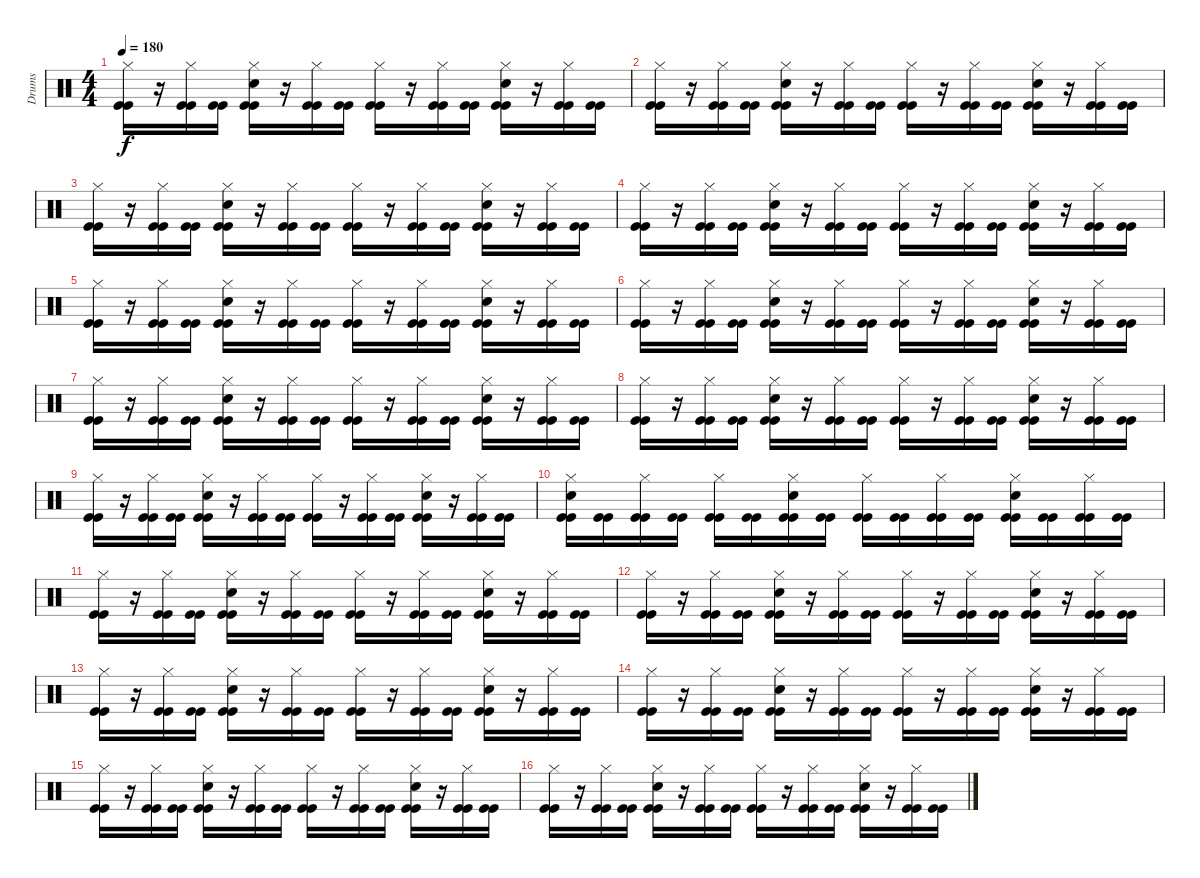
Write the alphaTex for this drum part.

\track ("Drums" "Drums") {instrument percussion}
\staff {score}
\articulation defaults
\ts (4 4)
\tempo 180
\clef neutral
\ks c
("Hi-Hat (closed)" "Kick (hit)" "Kick (hit)").16{dy f} r.16 ("Hi-Hat (closed)" "Kick (hit)" "Kick (hit)").16 ("Kick (hit)" "Kick (hit)").16 ("Snare (hit) 2" "Hi-Hat (closed)" "Kick (hit)" "Kick (hit)").16 r.16 ("Hi-Hat (closed)" "Kick (hit)" "Kick (hit)").16 ("Kick (hit)" "Kick (hit)").16 ("Hi-Hat (closed)" "Kick (hit)" "Kick (hit)").16 r.16 ("Hi-Hat (closed)" "Kick (hit)" "Kick (hit)").16 ("Kick (hit)" "Kick (hit)").16 ("Snare (hit) 2" "Hi-Hat (closed)" "Kick (hit)" "Kick (hit)").16 r.16 ("Hi-Hat (closed)" "Kick (hit)" "Kick (hit)").16 ("Kick (hit)" "Kick (hit)").16 |
("Hi-Hat (closed)" "Kick (hit)" "Kick (hit)").16 r.16 ("Hi-Hat (closed)" "Kick (hit)" "Kick (hit)").16 ("Kick (hit)" "Kick (hit)").16 ("Snare (hit) 2" "Hi-Hat (closed)" "Kick (hit)" "Kick (hit)").16 r.16 ("Hi-Hat (closed)" "Kick (hit)" "Kick (hit)").16 ("Kick (hit)" "Kick (hit)").16 ("Hi-Hat (closed)" "Kick (hit)" "Kick (hit)").16 r.16 ("Hi-Hat (closed)" "Kick (hit)" "Kick (hit)").16 ("Kick (hit)" "Kick (hit)").16 ("Snare (hit) 2" "Hi-Hat (closed)" "Kick (hit)" "Kick (hit)").16 r.16 ("Hi-Hat (closed)" "Kick (hit)" "Kick (hit)").16 ("Kick (hit)" "Kick (hit)").16 |
("Hi-Hat (closed)" "Kick (hit)" "Kick (hit)").16 r.16 ("Hi-Hat (closed)" "Kick (hit)" "Kick (hit)").16 ("Kick (hit)" "Kick (hit)").16 ("Snare (hit) 2" "Hi-Hat (closed)" "Kick (hit)" "Kick (hit)").16 r.16 ("Hi-Hat (closed)" "Kick (hit)" "Kick (hit)").16 ("Kick (hit)" "Kick (hit)").16 ("Hi-Hat (closed)" "Kick (hit)" "Kick (hit)").16 r.16 ("Hi-Hat (closed)" "Kick (hit)" "Kick (hit)").16 ("Kick (hit)" "Kick (hit)").16 ("Snare (hit) 2" "Hi-Hat (closed)" "Kick (hit)" "Kick (hit)").16 r.16 ("Hi-Hat (closed)" "Kick (hit)" "Kick (hit)").16 ("Kick (hit)" "Kick (hit)").16 |
("Hi-Hat (closed)" "Kick (hit)" "Kick (hit)").16 r.16 ("Hi-Hat (closed)" "Kick (hit)" "Kick (hit)").16 ("Kick (hit)" "Kick (hit)").16 ("Snare (hit) 2" "Hi-Hat (closed)" "Kick (hit)" "Kick (hit)").16 r.16 ("Hi-Hat (closed)" "Kick (hit)" "Kick (hit)").16 ("Kick (hit)" "Kick (hit)").16 ("Hi-Hat (closed)" "Kick (hit)" "Kick (hit)").16 r.16 ("Hi-Hat (closed)" "Kick (hit)" "Kick (hit)").16 ("Kick (hit)" "Kick (hit)").16 ("Snare (hit) 2" "Hi-Hat (closed)" "Kick (hit)" "Kick (hit)").16 r.16 ("Hi-Hat (closed)" "Kick (hit)" "Kick (hit)").16 ("Kick (hit)" "Kick (hit)").16 |
("Hi-Hat (closed)" "Kick (hit)" "Kick (hit)").16 r.16 ("Hi-Hat (closed)" "Kick (hit)" "Kick (hit)").16 ("Kick (hit)" "Kick (hit)").16 ("Snare (hit) 2" "Hi-Hat (closed)" "Kick (hit)" "Kick (hit)").16 r.16 ("Hi-Hat (closed)" "Kick (hit)" "Kick (hit)").16 ("Kick (hit)" "Kick (hit)").16 ("Hi-Hat (closed)" "Kick (hit)" "Kick (hit)").16 r.16 ("Hi-Hat (closed)" "Kick (hit)" "Kick (hit)").16 ("Kick (hit)" "Kick (hit)").16 ("Snare (hit) 2" "Hi-Hat (closed)" "Kick (hit)" "Kick (hit)").16 r.16 ("Hi-Hat (closed)" "Kick (hit)" "Kick (hit)").16 ("Kick (hit)" "Kick (hit)").16 |
("Hi-Hat (closed)" "Kick (hit)" "Kick (hit)").16 r.16 ("Hi-Hat (closed)" "Kick (hit)" "Kick (hit)").16 ("Kick (hit)" "Kick (hit)").16 ("Snare (hit) 2" "Hi-Hat (closed)" "Kick (hit)" "Kick (hit)").16 r.16 ("Hi-Hat (closed)" "Kick (hit)" "Kick (hit)").16 ("Kick (hit)" "Kick (hit)").16 ("Hi-Hat (closed)" "Kick (hit)" "Kick (hit)").16 r.16 ("Hi-Hat (closed)" "Kick (hit)" "Kick (hit)").16 ("Kick (hit)" "Kick (hit)").16 ("Snare (hit) 2" "Hi-Hat (closed)" "Kick (hit)" "Kick (hit)").16 r.16 ("Hi-Hat (closed)" "Kick (hit)" "Kick (hit)").16 ("Kick (hit)" "Kick (hit)").16 |
("Hi-Hat (closed)" "Kick (hit)" "Kick (hit)").16 r.16 ("Hi-Hat (closed)" "Kick (hit)" "Kick (hit)").16 ("Kick (hit)" "Kick (hit)").16 ("Snare (hit) 2" "Hi-Hat (closed)" "Kick (hit)" "Kick (hit)").16 r.16 ("Hi-Hat (closed)" "Kick (hit)" "Kick (hit)").16 ("Kick (hit)" "Kick (hit)").16 ("Hi-Hat (closed)" "Kick (hit)" "Kick (hit)").16 r.16 ("Hi-Hat (closed)" "Kick (hit)" "Kick (hit)").16 ("Kick (hit)" "Kick (hit)").16 ("Snare (hit) 2" "Hi-Hat (closed)" "Kick (hit)" "Kick (hit)").16 r.16 ("Hi-Hat (closed)" "Kick (hit)" "Kick (hit)").16 ("Kick (hit)" "Kick (hit)").16 |
("Hi-Hat (closed)" "Kick (hit)" "Kick (hit)").16 r.16 ("Hi-Hat (closed)" "Kick (hit)" "Kick (hit)").16 ("Kick (hit)" "Kick (hit)").16 ("Snare (hit) 2" "Hi-Hat (closed)" "Kick (hit)" "Kick (hit)").16 r.16 ("Hi-Hat (closed)" "Kick (hit)" "Kick (hit)").16 ("Kick (hit)" "Kick (hit)").16 ("Hi-Hat (closed)" "Kick (hit)" "Kick (hit)").16 r.16 ("Hi-Hat (closed)" "Kick (hit)" "Kick (hit)").16 ("Kick (hit)" "Kick (hit)").16 ("Snare (hit) 2" "Hi-Hat (closed)" "Kick (hit)" "Kick (hit)").16 r.16 ("Hi-Hat (closed)" "Kick (hit)" "Kick (hit)").16 ("Kick (hit)" "Kick (hit)").16 |
("Hi-Hat (closed)" "Kick (hit)" "Kick (hit)").16 r.16 ("Hi-Hat (closed)" "Kick (hit)" "Kick (hit)").16 ("Kick (hit)" "Kick (hit)").16 ("Snare (hit) 2" "Hi-Hat (closed)" "Kick (hit)" "Kick (hit)").16 r.16 ("Hi-Hat (closed)" "Kick (hit)" "Kick (hit)").16 ("Kick (hit)" "Kick (hit)").16 ("Hi-Hat (closed)" "Kick (hit)" "Kick (hit)").16 r.16 ("Hi-Hat (closed)" "Kick (hit)" "Kick (hit)").16 ("Kick (hit)" "Kick (hit)").16 ("Snare (hit) 2" "Hi-Hat (closed)" "Kick (hit)" "Kick (hit)").16 r.16 ("Hi-Hat (closed)" "Kick (hit)" "Kick (hit)").16 ("Kick (hit)" "Kick (hit)").16 |
("Snare (hit) 2" "Hi-Hat (closed)" "Kick (hit)" "Kick (hit)").16 ("Kick (hit)" "Kick (hit)").16 ("Hi-Hat (closed)" "Kick (hit)" "Kick (hit)").16 ("Kick (hit)" "Kick (hit)").16 ("Hi-Hat (closed)" "Kick (hit)" "Kick (hit)").16 ("Kick (hit)" "Kick (hit)").16 ("Snare (hit) 2" "Hi-Hat (closed)" "Kick (hit)" "Kick (hit)").16 ("Kick (hit)" "Kick (hit)").16 ("Hi-Hat (closed)" "Kick (hit)" "Kick (hit)").16 ("Kick (hit)" "Kick (hit)").16 ("Hi-Hat (closed)" "Kick (hit)" "Kick (hit)").16 ("Kick (hit)" "Kick (hit)").16 ("Snare (hit) 2" "Hi-Hat (closed)" "Kick (hit)" "Kick (hit)").16 ("Kick (hit)" "Kick (hit)").16 ("Hi-Hat (closed)" "Kick (hit)" "Kick (hit)").16 ("Kick (hit)" "Kick (hit)").16 |
("Hi-Hat (closed)" "Kick (hit)" "Kick (hit)").16 r.16 ("Hi-Hat (closed)" "Kick (hit)" "Kick (hit)").16 ("Kick (hit)" "Kick (hit)").16 ("Snare (hit) 2" "Hi-Hat (closed)" "Kick (hit)" "Kick (hit)").16 r.16 ("Hi-Hat (closed)" "Kick (hit)" "Kick (hit)").16 ("Kick (hit)" "Kick (hit)").16 ("Hi-Hat (closed)" "Kick (hit)" "Kick (hit)").16 r.16 ("Hi-Hat (closed)" "Kick (hit)" "Kick (hit)").16 ("Kick (hit)" "Kick (hit)").16 ("Snare (hit) 2" "Hi-Hat (closed)" "Kick (hit)" "Kick (hit)").16 r.16 ("Hi-Hat (closed)" "Kick (hit)" "Kick (hit)").16 ("Kick (hit)" "Kick (hit)").16 |
("Hi-Hat (closed)" "Kick (hit)" "Kick (hit)").16 r.16 ("Hi-Hat (closed)" "Kick (hit)" "Kick (hit)").16 ("Kick (hit)" "Kick (hit)").16 ("Snare (hit) 2" "Hi-Hat (closed)" "Kick (hit)" "Kick (hit)").16 r.16 ("Hi-Hat (closed)" "Kick (hit)" "Kick (hit)").16 ("Kick (hit)" "Kick (hit)").16 ("Hi-Hat (closed)" "Kick (hit)" "Kick (hit)").16 r.16 ("Hi-Hat (closed)" "Kick (hit)" "Kick (hit)").16 ("Kick (hit)" "Kick (hit)").16 ("Snare (hit) 2" "Hi-Hat (closed)" "Kick (hit)" "Kick (hit)").16 r.16 ("Hi-Hat (closed)" "Kick (hit)" "Kick (hit)").16 ("Kick (hit)" "Kick (hit)").16 |
("Hi-Hat (closed)" "Kick (hit)" "Kick (hit)").16 r.16 ("Hi-Hat (closed)" "Kick (hit)" "Kick (hit)").16 ("Kick (hit)" "Kick (hit)").16 ("Snare (hit) 2" "Hi-Hat (closed)" "Kick (hit)" "Kick (hit)").16 r.16 ("Hi-Hat (closed)" "Kick (hit)" "Kick (hit)").16 ("Kick (hit)" "Kick (hit)").16 ("Hi-Hat (closed)" "Kick (hit)" "Kick (hit)").16 r.16 ("Hi-Hat (closed)" "Kick (hit)" "Kick (hit)").16 ("Kick (hit)" "Kick (hit)").16 ("Snare (hit) 2" "Hi-Hat (closed)" "Kick (hit)" "Kick (hit)").16 r.16 ("Hi-Hat (closed)" "Kick (hit)" "Kick (hit)").16 ("Kick (hit)" "Kick (hit)").16 |
("Hi-Hat (closed)" "Kick (hit)" "Kick (hit)").16 r.16 ("Hi-Hat (closed)" "Kick (hit)" "Kick (hit)").16 ("Kick (hit)" "Kick (hit)").16 ("Snare (hit) 2" "Hi-Hat (closed)" "Kick (hit)" "Kick (hit)").16 r.16 ("Hi-Hat (closed)" "Kick (hit)" "Kick (hit)").16 ("Kick (hit)" "Kick (hit)").16 ("Hi-Hat (closed)" "Kick (hit)" "Kick (hit)").16 r.16 ("Hi-Hat (closed)" "Kick (hit)" "Kick (hit)").16 ("Kick (hit)" "Kick (hit)").16 ("Snare (hit) 2" "Hi-Hat (closed)" "Kick (hit)" "Kick (hit)").16 r.16 ("Hi-Hat (closed)" "Kick (hit)" "Kick (hit)").16 ("Kick (hit)" "Kick (hit)").16 |
("Hi-Hat (closed)" "Kick (hit)" "Kick (hit)").16 r.16 ("Hi-Hat (closed)" "Kick (hit)" "Kick (hit)").16 ("Kick (hit)" "Kick (hit)").16 ("Snare (hit) 2" "Hi-Hat (closed)" "Kick (hit)" "Kick (hit)").16 r.16 ("Hi-Hat (closed)" "Kick (hit)" "Kick (hit)").16 ("Kick (hit)" "Kick (hit)").16 ("Hi-Hat (closed)" "Kick (hit)" "Kick (hit)").16 r.16 ("Hi-Hat (closed)" "Kick (hit)" "Kick (hit)").16 ("Kick (hit)" "Kick (hit)").16 ("Snare (hit) 2" "Hi-Hat (closed)" "Kick (hit)" "Kick (hit)").16 r.16 ("Hi-Hat (closed)" "Kick (hit)" "Kick (hit)").16 ("Kick (hit)" "Kick (hit)").16 |
("Hi-Hat (closed)" "Kick (hit)" "Kick (hit)").16 r.16 ("Hi-Hat (closed)" "Kick (hit)" "Kick (hit)").16 ("Kick (hit)" "Kick (hit)").16 ("Snare (hit) 2" "Hi-Hat (closed)" "Kick (hit)" "Kick (hit)").16 r.16 ("Hi-Hat (closed)" "Kick (hit)" "Kick (hit)").16 ("Kick (hit)" "Kick (hit)").16 ("Hi-Hat (closed)" "Kick (hit)" "Kick (hit)").16 r.16 ("Hi-Hat (closed)" "Kick (hit)" "Kick (hit)").16 ("Kick (hit)" "Kick (hit)").16 ("Snare (hit) 2" "Hi-Hat (closed)" "Kick (hit)" "Kick (hit)").16 r.16 ("Hi-Hat (closed)" "Kick (hit)" "Kick (hit)").16 ("Kick (hit)" "Kick (hit)").16
